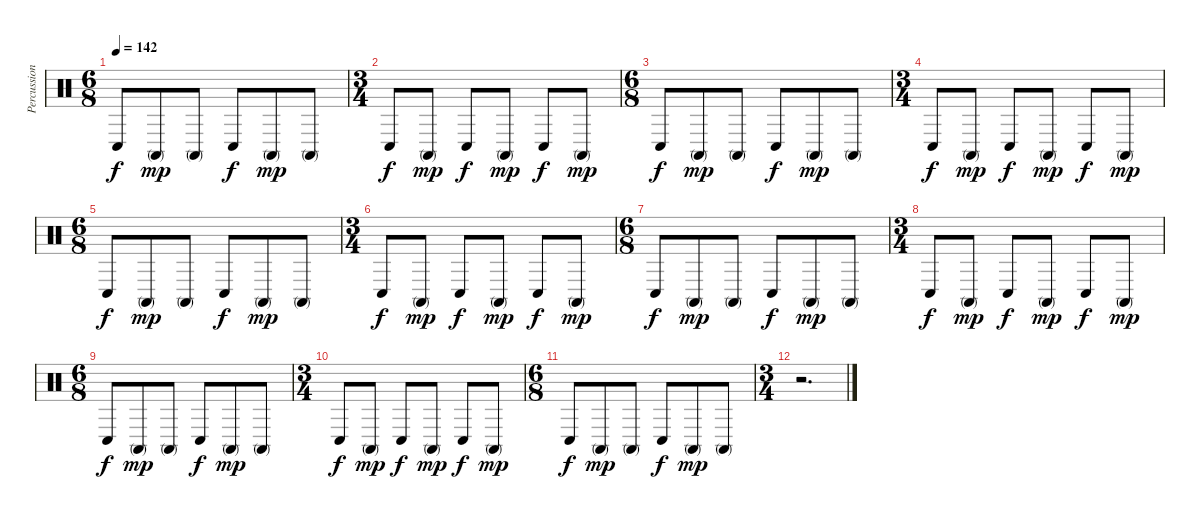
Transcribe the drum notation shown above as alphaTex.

\track ("Percussion" "Percussion") {instrument percussion}
\staff {score}
\articulation defaults
\ts (6 8)
\tempo 142
\clef neutral
\ks c "Conga low (hit)".8{dy f} "Conga high (mute)".8{dy mp} "Conga high (mute)".8 "Conga low (hit)".8{dy f} "Conga high (mute)".8{dy mp} "Conga high (mute)".8
|
\ts (3 4)
"Conga low (hit)".8{dy f} "Conga high (mute)".8{dy mp} "Conga low (hit)".8{dy f} "Conga high (mute)".8{dy mp} "Conga low (hit)".8{dy f} "Conga high (mute)".8{dy mp} |
\ts (6 8)
"Conga low (hit)".8{dy f} "Conga high (mute)".8{dy mp} "Conga high (mute)".8 "Conga low (hit)".8{dy f} "Conga high (mute)".8{dy mp} "Conga high (mute)".8 |
\ts (3 4)
"Conga low (hit)".8{dy f} "Conga high (mute)".8{dy mp} "Conga low (hit)".8{dy f} "Conga high (mute)".8{dy mp} "Conga low (hit)".8{dy f} "Conga high (mute)".8{dy mp} |
\ts (6 8)
"Conga low (hit)".8{dy f} "Conga high (mute)".8{dy mp} "Conga high (mute)".8 "Conga low (hit)".8{dy f} "Conga high (mute)".8{dy mp} "Conga high (mute)".8 |
\ts (3 4)
"Conga low (hit)".8{dy f} "Conga high (mute)".8{dy mp} "Conga low (hit)".8{dy f} "Conga high (mute)".8{dy mp} "Conga low (hit)".8{dy f} "Conga high (mute)".8{dy mp} |
\ts (6 8)
"Conga low (hit)".8{dy f} "Conga high (mute)".8{dy mp} "Conga high (mute)".8 "Conga low (hit)".8{dy f} "Conga high (mute)".8{dy mp} "Conga high (mute)".8 |
\ts (3 4)
"Conga low (hit)".8{dy f} "Conga high (mute)".8{dy mp} "Conga low (hit)".8{dy f} "Conga high (mute)".8{dy mp} "Conga low (hit)".8{dy f} "Conga high (mute)".8{dy mp} |
\ts (6 8)
"Conga low (hit)".8{dy f} "Conga high (mute)".8{dy mp} "Conga high (mute)".8 "Conga low (hit)".8{dy f} "Conga high (mute)".8{dy mp} "Conga high (mute)".8 |
\ts (3 4)
"Conga low (hit)".8{dy f} "Conga high (mute)".8{dy mp} "Conga low (hit)".8{dy f} "Conga high (mute)".8{dy mp} "Conga low (hit)".8{dy f} "Conga high (mute)".8{dy mp} |
\ts (6 8)
"Conga low (hit)".8{dy f} "Conga high (mute)".8{dy mp} "Conga high (mute)".8 "Conga low (hit)".8{dy f} "Conga high (mute)".8{dy mp} "Conga high (mute)".8 |
\ts (3 4)
r.2{d}
